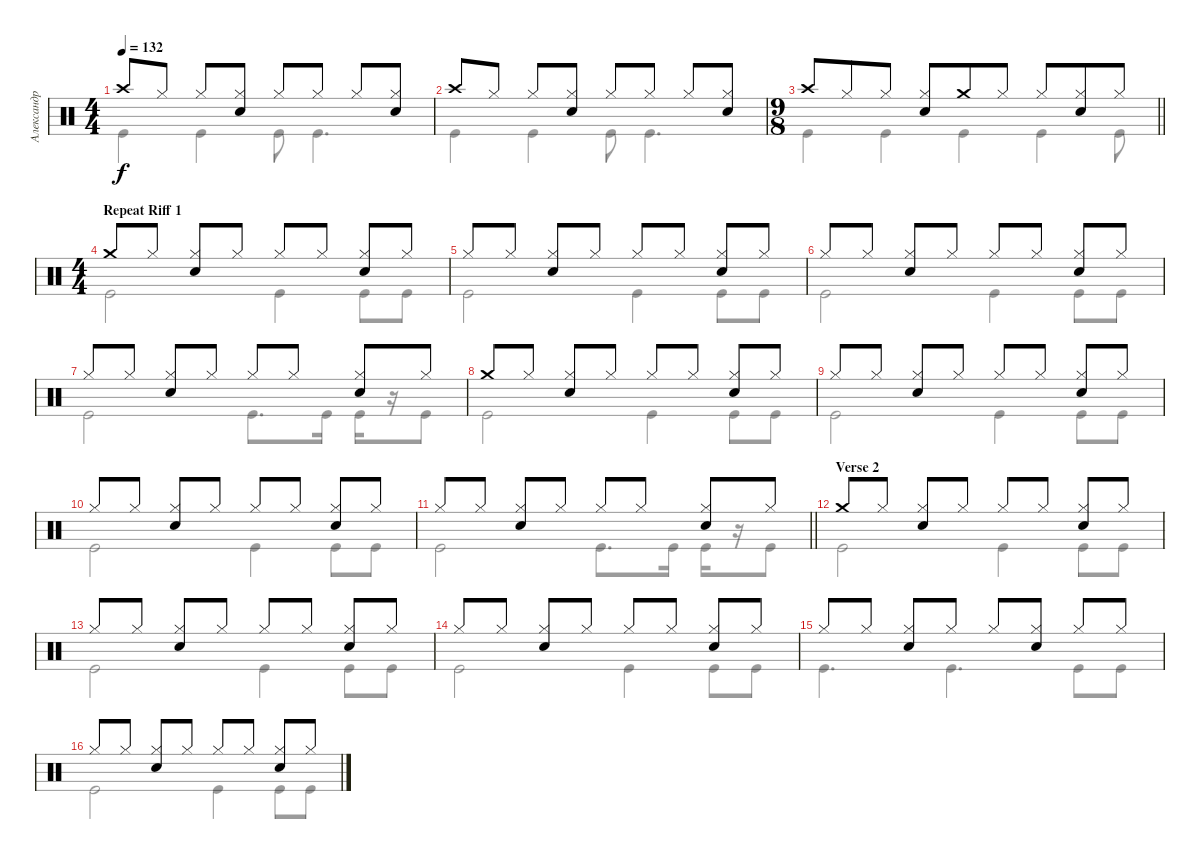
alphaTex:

\track ("Александр Манякин" "Александр ") {instrument percussion}
\staff {score}
\articulation defaults
\voice
\ts (4 4)
\tempo 132
\clef neutral
\ks c "Crash high (hit)".8{dy f} "Hi-Hat (closed)".8 "Hi-Hat (closed)".8
("Hi-Hat (closed)" "Snare (hit) 2").8 "Hi-Hat (closed)".8 "Hi-Hat (closed)".8 "Hi-Hat (closed)".8 ("Hi-Hat (closed)" "Snare (hit) 2").8 |
"Crash high (hit)".8 "Hi-Hat (closed)".8 "Hi-Hat (closed)".8 ("Hi-Hat (closed)" "Snare (hit) 2").8 "Hi-Hat (closed)".8 "Hi-Hat (closed)".8 "Hi-Hat (closed)".8 ("Hi-Hat (closed)" "Snare (hit) 2").8 |
\ts (9 8)
\barLineRight lightlight "Crash high (hit)".8 "Hi-Hat (closed)".8 "Hi-Hat (closed)".8
("Hi-Hat (closed)" "Snare (hit) 2").8 "Crash medium (hit)".8 "Hi-Hat (closed)".8 "Hi-Hat (closed)".8 ("Hi-Hat (closed)" "Snare (hit) 2").8 "Hi-Hat (closed)".8 |
\ts (4 4)
\section ("" "Repeat Riff 1")
"Crash medium (hit)".8 "Hi-Hat (closed)".8 ("Hi-Hat (closed)" "Snare (hit) 2").8 "Hi-Hat (closed)".8 "Hi-Hat (closed)".8 "Hi-Hat (closed)".8 ("Hi-Hat (closed)" "Snare (hit) 2").8 "Hi-Hat (closed)".8 |
"Hi-Hat (closed)".8 "Hi-Hat (closed)".8 ("Hi-Hat (closed)" "Snare (hit) 2").8 "Hi-Hat (closed)".8 "Hi-Hat (closed)".8 "Hi-Hat (closed)".8 ("Hi-Hat (closed)" "Snare (hit) 2").8 "Hi-Hat (closed)".8 |
"Hi-Hat (closed)".8 "Hi-Hat (closed)".8 ("Hi-Hat (closed)" "Snare (hit) 2").8 "Hi-Hat (closed)".8 "Hi-Hat (closed)".8 "Hi-Hat (closed)".8 ("Hi-Hat (closed)" "Snare (hit) 2").8 "Hi-Hat (closed)".8 |
"Hi-Hat (closed)".8 "Hi-Hat (closed)".8 ("Hi-Hat (closed)" "Snare (hit) 2").8 "Hi-Hat (closed)".8 "Hi-Hat (closed)".8 "Hi-Hat (closed)".8 ("Hi-Hat (closed)" "Snare (hit) 2").8 "Hi-Hat (closed)".8 |
"Crash medium (hit)".8 "Hi-Hat (closed)".8 ("Hi-Hat (closed)" "Snare (hit) 2").8 "Hi-Hat (closed)".8 "Hi-Hat (closed)".8 "Hi-Hat (closed)".8 ("Hi-Hat (closed)" "Snare (hit) 2").8 "Hi-Hat (closed)".8 |
"Hi-Hat (closed)".8 "Hi-Hat (closed)".8 ("Hi-Hat (closed)" "Snare (hit) 2").8 "Hi-Hat (closed)".8 "Hi-Hat (closed)".8 "Hi-Hat (closed)".8 ("Hi-Hat (closed)" "Snare (hit) 2").8 "Hi-Hat (closed)".8 |
"Hi-Hat (closed)".8 "Hi-Hat (closed)".8 ("Hi-Hat (closed)" "Snare (hit) 2").8 "Hi-Hat (closed)".8 "Hi-Hat (closed)".8 "Hi-Hat (closed)".8 ("Hi-Hat (closed)" "Snare (hit) 2").8 "Hi-Hat (closed)".8 |
\barLineRight lightlight "Hi-Hat (closed)".8 "Hi-Hat (closed)".8
("Hi-Hat (closed)" "Snare (hit) 2").8 "Hi-Hat (closed)".8 "Hi-Hat (closed)".8 "Hi-Hat (closed)".8 ("Hi-Hat (closed)" "Snare (hit) 2").8 "Hi-Hat (closed)".8 |
\section ("" "Verse 2")
"Crash medium (hit)".8 "Hi-Hat (closed)".8 ("Hi-Hat (closed)" "Snare (hit) 2").8 "Hi-Hat (closed)".8 "Hi-Hat (closed)".8 "Hi-Hat (closed)".8 ("Hi-Hat (closed)" "Snare (hit) 2").8 "Hi-Hat (closed)".8 |
"Hi-Hat (closed)".8 "Hi-Hat (closed)".8 ("Hi-Hat (closed)" "Snare (hit) 2").8 "Hi-Hat (closed)".8 "Hi-Hat (closed)".8 "Hi-Hat (closed)".8 ("Hi-Hat (closed)" "Snare (hit) 2").8 "Hi-Hat (closed)".8 |
"Hi-Hat (closed)".8 "Hi-Hat (closed)".8 ("Hi-Hat (closed)" "Snare (hit) 2").8 "Hi-Hat (closed)".8 "Hi-Hat (closed)".8 "Hi-Hat (closed)".8 ("Hi-Hat (closed)" "Snare (hit) 2").8 "Hi-Hat (closed)".8 |
"Hi-Hat (closed)".8 "Hi-Hat (closed)".8 ("Hi-Hat (closed)" "Snare (hit) 2").8 "Hi-Hat (closed)".8 "Hi-Hat (closed)".8 ("Hi-Hat (closed)" "Snare (hit) 2").8 "Hi-Hat (closed)".8 "Hi-Hat (closed)".8 |
"Hi-Hat (closed)".8 "Hi-Hat (closed)".8 ("Hi-Hat (closed)" "Snare (hit) 2").8 "Hi-Hat (closed)".8 "Hi-Hat (closed)".8 "Hi-Hat (closed)".8 ("Hi-Hat (closed)" "Snare (hit) 2").8 "Hi-Hat (closed)".8
\voice
\clef neutral
\ottava regular
\simile none
\ks c "Kick (hit)".4{dy f} "Kick (hit)".4 "Kick (hit)".8 "Kick (hit)".4{d}
|
"Kick (hit)".4 "Kick (hit)".4 "Kick (hit)".8 "Kick (hit)".4{d} |
\barLineRight lightlight "Kick (hit)".4 "Kick (hit)".4 "Kick (hit)".4 "Kick (hit)".4 "Kick (hit)".8
|
"Kick (hit)".2 "Kick (hit)".4 "Kick (hit)".8 "Kick (hit)".8 |
"Kick (hit)".2 "Kick (hit)".4 "Kick (hit)".8 "Kick (hit)".8 |
"Kick (hit)".2 "Kick (hit)".4 "Kick (hit)".8 "Kick (hit)".8 |
"Kick (hit)".2 "Kick (hit)".8{d} "Kick (hit)".16 "Kick (hit)".16 r.16 "Kick (hit)".8 |
"Kick (hit)".2 "Kick (hit)".4 "Kick (hit)".8 "Kick (hit)".8 |
"Kick (hit)".2 "Kick (hit)".4 "Kick (hit)".8 "Kick (hit)".8 |
"Kick (hit)".2 "Kick (hit)".4 "Kick (hit)".8 "Kick (hit)".8 |
\barLineRight lightlight "Kick (hit)".2 "Kick (hit)".8{d} "Kick (hit)".16 "Kick (hit)".16
r.16 "Kick (hit)".8 |
"Kick (hit)".2 "Kick (hit)".4 "Kick (hit)".8 "Kick (hit)".8 |
"Kick (hit)".2 "Kick (hit)".4 "Kick (hit)".8 "Kick (hit)".8 |
"Kick (hit)".2 "Kick (hit)".4 "Kick (hit)".8 "Kick (hit)".8 |
"Kick (hit)".4{d} "Kick (hit)".4{d} "Kick (hit)".8 "Kick (hit)".8 |
"Kick (hit)".2 "Kick (hit)".4 "Kick (hit)".8 "Kick (hit)".8
